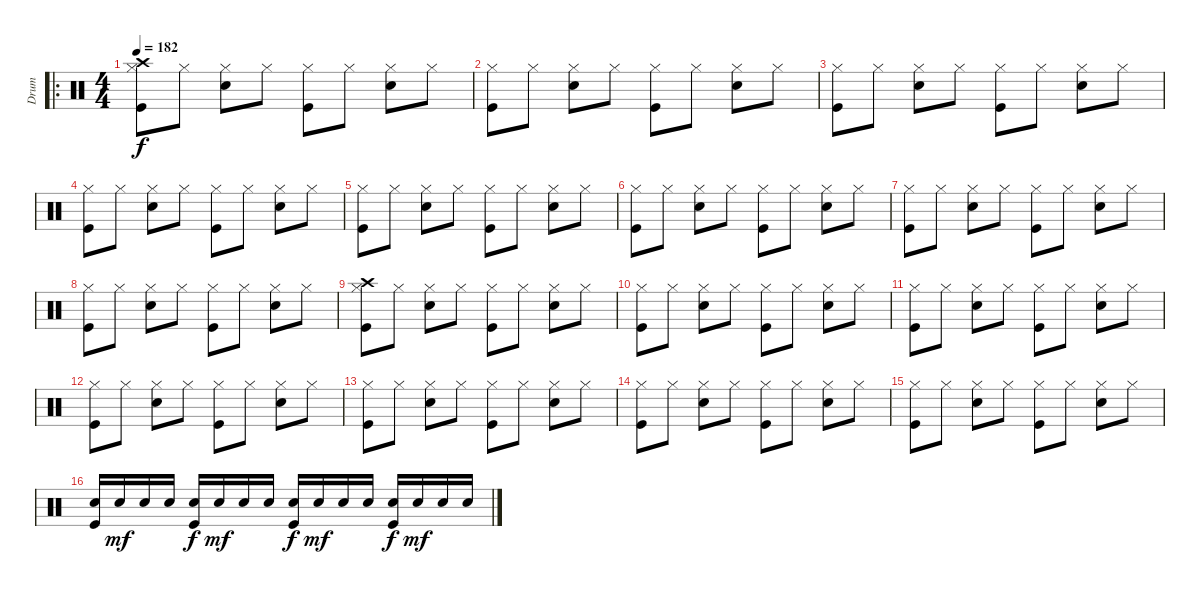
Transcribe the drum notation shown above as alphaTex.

\track ("Drum" "Drum") {instrument percussion}
\staff {score}
\articulation defaults
\ro
\ts (4 4)
\tempo 182
\clef neutral
\ks c
("Crash high (hit)" "Hi-Hat (closed)" "Kick (hit)").8{dy f} "Hi-Hat (closed)".8 ("Snare (hit) 2" "Hi-Hat (closed)").8 "Hi-Hat (closed)".8 ("Hi-Hat (closed)" "Kick (hit)").8 "Hi-Hat (closed)".8 ("Snare (hit) 2" "Hi-Hat (closed)").8 "Hi-Hat (closed)".8 |
("Hi-Hat (closed)" "Kick (hit)").8 "Hi-Hat (closed)".8 ("Snare (hit) 2" "Hi-Hat (closed)").8 "Hi-Hat (closed)".8 ("Hi-Hat (closed)" "Kick (hit)").8 "Hi-Hat (closed)".8 ("Snare (hit) 2" "Hi-Hat (closed)").8 "Hi-Hat (closed)".8 |
("Hi-Hat (closed)" "Kick (hit)").8 "Hi-Hat (closed)".8 ("Snare (hit) 2" "Hi-Hat (closed)").8 "Hi-Hat (closed)".8 ("Hi-Hat (closed)" "Kick (hit)").8 "Hi-Hat (closed)".8 ("Snare (hit) 2" "Hi-Hat (closed)").8 "Hi-Hat (closed)".8 |
("Hi-Hat (closed)" "Kick (hit)").8 "Hi-Hat (closed)".8 ("Snare (hit) 2" "Hi-Hat (closed)").8 "Hi-Hat (closed)".8 ("Hi-Hat (closed)" "Kick (hit)").8 "Hi-Hat (closed)".8 ("Snare (hit) 2" "Hi-Hat (closed)").8 "Hi-Hat (closed)".8 |
("Hi-Hat (closed)" "Kick (hit)").8 "Hi-Hat (closed)".8 ("Snare (hit) 2" "Hi-Hat (closed)").8 "Hi-Hat (closed)".8 ("Hi-Hat (closed)" "Kick (hit)").8 "Hi-Hat (closed)".8 ("Snare (hit) 2" "Hi-Hat (closed)").8 "Hi-Hat (closed)".8 |
("Hi-Hat (closed)" "Kick (hit)").8 "Hi-Hat (closed)".8 ("Snare (hit) 2" "Hi-Hat (closed)").8 "Hi-Hat (closed)".8 ("Hi-Hat (closed)" "Kick (hit)").8 "Hi-Hat (closed)".8 ("Snare (hit) 2" "Hi-Hat (closed)").8 "Hi-Hat (closed)".8 |
("Hi-Hat (closed)" "Kick (hit)").8 "Hi-Hat (closed)".8 ("Snare (hit) 2" "Hi-Hat (closed)").8 "Hi-Hat (closed)".8 ("Hi-Hat (closed)" "Kick (hit)").8 "Hi-Hat (closed)".8 ("Snare (hit) 2" "Hi-Hat (closed)").8 "Hi-Hat (closed)".8 |
("Hi-Hat (closed)" "Kick (hit)").8 "Hi-Hat (closed)".8 ("Snare (hit) 2" "Hi-Hat (closed)").8 "Hi-Hat (closed)".8 ("Hi-Hat (closed)" "Kick (hit)").8 "Hi-Hat (closed)".8 ("Snare (hit) 2" "Hi-Hat (closed)").8 "Hi-Hat (closed)".8 |
("Crash high (hit)" "Hi-Hat (closed)" "Kick (hit)").8 "Hi-Hat (closed)".8 ("Snare (hit) 2" "Hi-Hat (closed)").8 "Hi-Hat (closed)".8 ("Hi-Hat (closed)" "Kick (hit)").8 "Hi-Hat (closed)".8 ("Snare (hit) 2" "Hi-Hat (closed)").8 "Hi-Hat (closed)".8 |
("Hi-Hat (closed)" "Kick (hit)").8 "Hi-Hat (closed)".8 ("Snare (hit) 2" "Hi-Hat (closed)").8 "Hi-Hat (closed)".8 ("Hi-Hat (closed)" "Kick (hit)").8 "Hi-Hat (closed)".8 ("Snare (hit) 2" "Hi-Hat (closed)").8 "Hi-Hat (closed)".8 |
("Hi-Hat (closed)" "Kick (hit)").8 "Hi-Hat (closed)".8 ("Snare (hit) 2" "Hi-Hat (closed)").8 "Hi-Hat (closed)".8 ("Hi-Hat (closed)" "Kick (hit)").8 "Hi-Hat (closed)".8 ("Snare (hit) 2" "Hi-Hat (closed)").8 "Hi-Hat (closed)".8 |
("Hi-Hat (closed)" "Kick (hit)").8 "Hi-Hat (closed)".8 ("Snare (hit) 2" "Hi-Hat (closed)").8 "Hi-Hat (closed)".8 ("Hi-Hat (closed)" "Kick (hit)").8 "Hi-Hat (closed)".8 ("Snare (hit) 2" "Hi-Hat (closed)").8 "Hi-Hat (closed)".8 |
("Hi-Hat (closed)" "Kick (hit)").8 "Hi-Hat (closed)".8 ("Snare (hit) 2" "Hi-Hat (closed)").8 "Hi-Hat (closed)".8 ("Hi-Hat (closed)" "Kick (hit)").8 "Hi-Hat (closed)".8 ("Snare (hit) 2" "Hi-Hat (closed)").8 "Hi-Hat (closed)".8 |
("Hi-Hat (closed)" "Kick (hit)").8 "Hi-Hat (closed)".8 ("Snare (hit) 2" "Hi-Hat (closed)").8 "Hi-Hat (closed)".8 ("Hi-Hat (closed)" "Kick (hit)").8 "Hi-Hat (closed)".8 ("Snare (hit) 2" "Hi-Hat (closed)").8 "Hi-Hat (closed)".8 |
("Hi-Hat (closed)" "Kick (hit)").8 "Hi-Hat (closed)".8 ("Snare (hit) 2" "Hi-Hat (closed)").8 "Hi-Hat (closed)".8 ("Hi-Hat (closed)" "Kick (hit)").8 "Hi-Hat (closed)".8 ("Snare (hit) 2" "Hi-Hat (closed)").8 "Hi-Hat (closed)".8 |
("Snare (hit) 2" "Kick (hit)").16 "Snare (hit) 2".16{dy mf} "Snare (hit) 2".16 "Snare (hit) 2".16 ("Snare (hit) 2" "Kick (hit)").16{dy f} "Snare (hit) 2".16{dy mf} "Snare (hit) 2".16 "Snare (hit) 2".16 ("Snare (hit) 2" "Kick (hit)").16{dy f} "Snare (hit) 2".16{dy mf} "Snare (hit) 2".16 "Snare (hit) 2".16 ("Snare (hit) 2" "Kick (hit)").16{dy f} "Snare (hit) 2".16{dy mf} "Snare (hit) 2".16 "Snare (hit) 2".16
